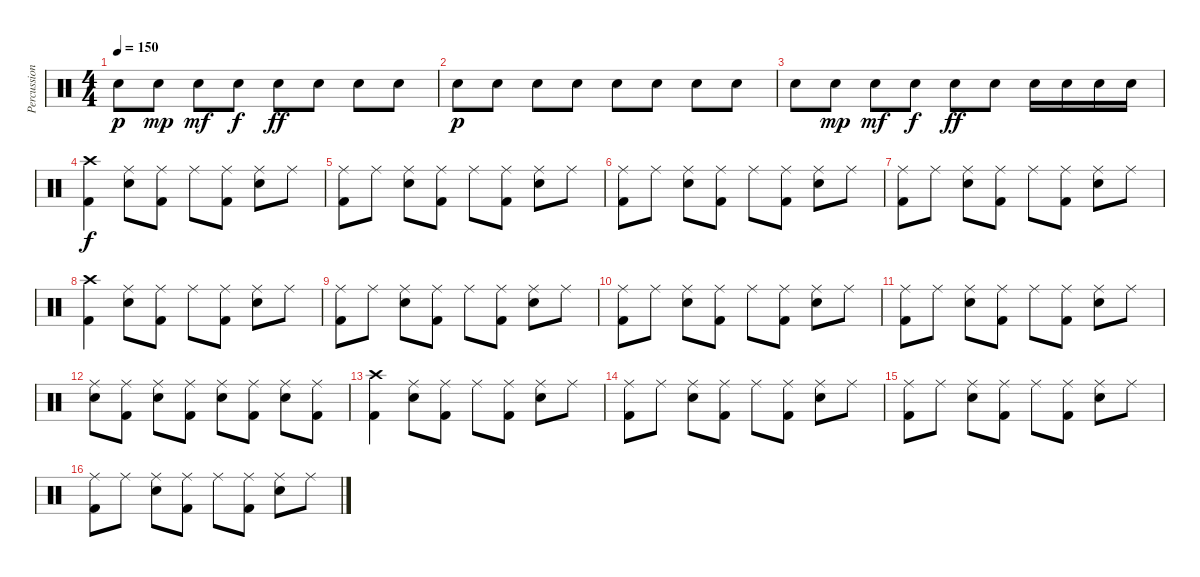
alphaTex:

\track ("Percussions" "Percussion") {instrument percussion}
\staff {score}
\articulation defaults
\ts (4 4)
\tempo 150
\clef neutral
\ks c "Snare (hit) 2".8{dy p} "Snare (hit) 2".8{dy mp} "Snare (hit) 2".8{dy mf} "Snare (hit) 2".8{dy f} "Snare (hit) 2".8{dy ff} "Snare (hit) 2".8 "Snare (hit) 2".8 "Snare (hit) 2".8
|
"Snare (hit) 2".8{dy p} "Snare (hit) 2".8 "Snare (hit) 2".8 "Snare (hit) 2".8 "Snare (hit) 2".8 "Snare (hit) 2".8 "Snare (hit) 2".8 "Snare (hit) 2".8 |
"Snare (hit) 2".8 "Snare (hit) 2".8{dy mp} "Snare (hit) 2".8{dy mf} "Snare (hit) 2".8{dy f} "Snare (hit) 2".8{dy ff} "Snare (hit) 2".8 "Snare (hit) 2".16 "Snare (hit) 2".16 "Snare (hit) 2".16 "Snare (hit) 2".16 |
("Crash high (hit)" "Kick (hit) 2").4{dy f} ("Ride (middle)" "Snare (hit) 2").8 ("Ride (middle)" "Kick (hit) 2").8 "Ride (middle)".8 ("Ride (middle)" "Kick (hit) 2").8 ("Ride (middle)" "Snare (hit) 2").8 "Ride (middle)".8 |
("Ride (middle)" "Kick (hit) 2").8 "Ride (middle)".8 ("Ride (middle)" "Snare (hit) 2").8 ("Ride (middle)" "Kick (hit) 2").8 "Ride (middle)".8 ("Ride (middle)" "Kick (hit) 2").8 ("Ride (middle)" "Snare (hit) 2").8 "Ride (middle)".8 |
("Ride (middle)" "Kick (hit) 2").8 "Ride (middle)".8 ("Ride (middle)" "Snare (hit) 2").8 ("Ride (middle)" "Kick (hit) 2").8 "Ride (middle)".8 ("Ride (middle)" "Kick (hit) 2").8 ("Ride (middle)" "Snare (hit) 2").8 "Ride (middle)".8 |
("Ride (middle)" "Kick (hit) 2").8 "Ride (middle)".8 ("Ride (middle)" "Snare (hit) 2").8 ("Ride (middle)" "Kick (hit) 2").8 "Ride (middle)".8 ("Ride (middle)" "Kick (hit) 2").8 ("Ride (middle)" "Snare (hit) 2").8 "Ride (middle)".8 |
("Crash high (hit)" "Kick (hit) 2").4 ("Ride (middle)" "Snare (hit) 2").8 ("Ride (middle)" "Kick (hit) 2").8 "Ride (middle)".8 ("Ride (middle)" "Kick (hit) 2").8 ("Ride (middle)" "Snare (hit) 2").8 "Ride (middle)".8 |
("Ride (middle)" "Kick (hit) 2").8 "Ride (middle)".8 ("Ride (middle)" "Snare (hit) 2").8 ("Ride (middle)" "Kick (hit) 2").8 "Ride (middle)".8 ("Ride (middle)" "Kick (hit) 2").8 ("Ride (middle)" "Snare (hit) 2").8 "Ride (middle)".8 |
("Ride (middle)" "Kick (hit) 2").8 "Ride (middle)".8 ("Ride (middle)" "Snare (hit) 2").8 ("Ride (middle)" "Kick (hit) 2").8 "Ride (middle)".8 ("Ride (middle)" "Kick (hit) 2").8 ("Ride (middle)" "Snare (hit) 2").8 "Ride (middle)".8 |
("Ride (middle)" "Kick (hit) 2").8 "Ride (middle)".8 ("Ride (middle)" "Snare (hit) 2").8 ("Ride (middle)" "Kick (hit) 2").8 "Ride (middle)".8 ("Ride (middle)" "Kick (hit) 2").8 ("Ride (middle)" "Snare (hit) 2").8 "Ride (middle)".8 |
("Ride (middle)" "Snare (hit) 2").8 ("Ride (middle)" "Kick (hit) 2").8 ("Ride (middle)" "Snare (hit) 2").8 ("Ride (middle)" "Kick (hit) 2").8 ("Ride (middle)" "Snare (hit) 2").8 ("Ride (middle)" "Kick (hit) 2").8 ("Ride (middle)" "Snare (hit) 2").8 ("Ride (middle)" "Kick (hit) 2").8 |
("Crash high (hit)" "Kick (hit) 2").4 ("Ride (middle)" "Snare (hit) 2").8 ("Ride (middle)" "Kick (hit) 2").8 "Ride (middle)".8 ("Ride (middle)" "Kick (hit) 2").8 ("Ride (middle)" "Snare (hit) 2").8 "Ride (middle)".8 |
("Ride (middle)" "Kick (hit) 2").8 "Ride (middle)".8 ("Ride (middle)" "Snare (hit) 2").8 ("Ride (middle)" "Kick (hit) 2").8 "Ride (middle)".8 ("Ride (middle)" "Kick (hit) 2").8 ("Ride (middle)" "Snare (hit) 2").8 "Ride (middle)".8 |
("Ride (middle)" "Kick (hit) 2").8 "Ride (middle)".8 ("Ride (middle)" "Snare (hit) 2").8 ("Ride (middle)" "Kick (hit) 2").8 "Ride (middle)".8 ("Ride (middle)" "Kick (hit) 2").8 ("Ride (middle)" "Snare (hit) 2").8 "Ride (middle)".8 |
("Ride (middle)" "Kick (hit) 2").8 "Ride (middle)".8 ("Ride (middle)" "Snare (hit) 2").8 ("Ride (middle)" "Kick (hit) 2").8 "Ride (middle)".8 ("Ride (middle)" "Kick (hit) 2").8 ("Ride (middle)" "Snare (hit) 2").8 "Ride (middle)".8
